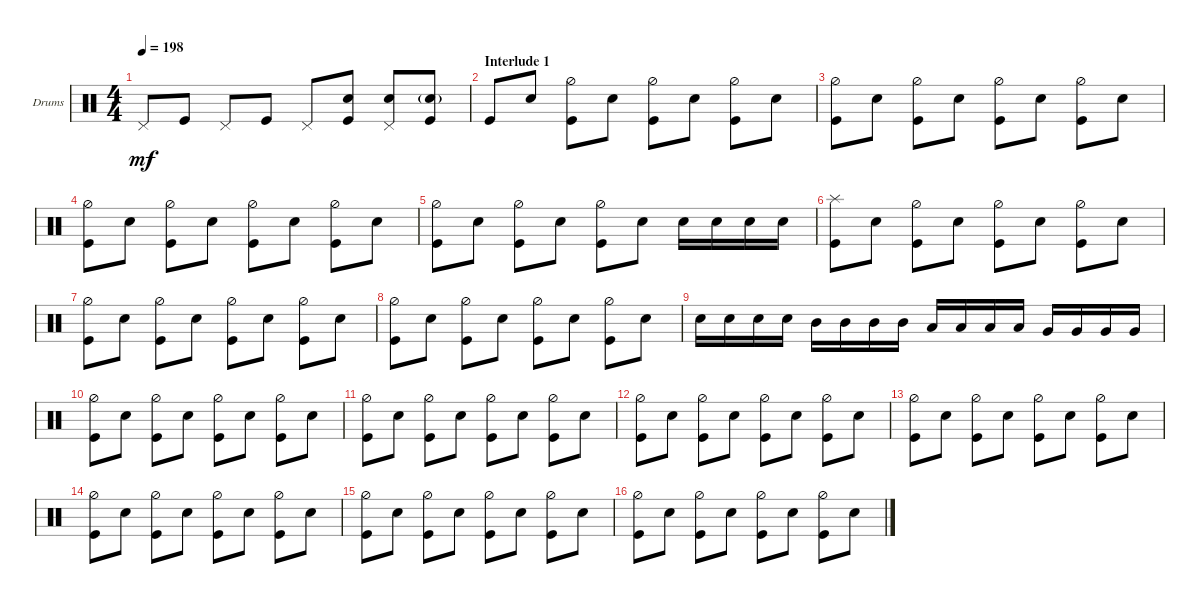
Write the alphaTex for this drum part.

\bracketExtendMode groupsimilarinstruments
\firstSystemTrackNameOrientation horizontal
\otherSystemsTrackNameOrientation horizontal
\track ("Drumkit" "Drums") {instrument percussion}
\staff {score}
\articulation defaults
\ts (4 4)
\tempo 198
\clef neutral
\ks c "Pedal Hi-Hat (hit)".8{dy mf} "Kick (hit)".8 "Pedal Hi-Hat (hit)".8 "Kick (hit)".8 "Pedal Hi-Hat (hit)".8
("Kick (hit)" "Snare (hit) 2").8 ("Pedal Hi-Hat (hit)" "Snare (hit) 2").8 ("Kick (hit)" "Snare (hit) 2"{g}).8 |
\section ("" "Interlude 1")
"Kick (hit)".8 "Snare (hit) 2".8 ("Kick (hit)" "Hi-Hat (half)").8 "Snare (hit) 2".8 ("Kick (hit)" "Hi-Hat (half)").8 "Snare (hit) 2".8 ("Kick (hit)" "Hi-Hat (half)").8 "Snare (hit) 2".8 |
("Kick (hit)" "Hi-Hat (half)").8 "Snare (hit) 2".8 ("Kick (hit)" "Hi-Hat (half)").8 "Snare (hit) 2".8 ("Kick (hit)" "Hi-Hat (half)").8 "Snare (hit) 2".8 ("Kick (hit)" "Hi-Hat (half)").8 "Snare (hit) 2".8 |
("Kick (hit)" "Hi-Hat (half)").8 "Snare (hit) 2".8 ("Kick (hit)" "Hi-Hat (half)").8 "Snare (hit) 2".8 ("Kick (hit)" "Hi-Hat (half)").8 "Snare (hit) 2".8 ("Kick (hit)" "Hi-Hat (half)").8 "Snare (hit) 2".8 |
("Kick (hit)" "Hi-Hat (half)").8 "Snare (hit) 2".8 ("Kick (hit)" "Hi-Hat (half)").8 "Snare (hit) 2".8 ("Hi-Hat (half)" "Kick (hit)").8 "Snare (hit) 2".8 "Snare (hit) 2".16 "Snare (hit) 2".16 "Snare (hit) 2".16 "Snare (hit) 2".16 |
("Kick (hit)" "Splash (hit)").8 "Snare (hit) 2".8 ("Kick (hit)" "Hi-Hat (half)").8 "Snare (hit) 2".8 ("Kick (hit)" "Hi-Hat (half)").8 "Snare (hit) 2".8 ("Kick (hit)" "Hi-Hat (half)").8 "Snare (hit) 2".8 |
("Kick (hit)" "Hi-Hat (half)").8 "Snare (hit) 2".8 ("Kick (hit)" "Hi-Hat (half)").8 "Snare (hit) 2".8 ("Kick (hit)" "Hi-Hat (half)").8 "Snare (hit) 2".8 ("Kick (hit)" "Hi-Hat (half)").8 "Snare (hit) 2".8 |
("Kick (hit)" "Hi-Hat (half)").8 "Snare (hit) 2".8 ("Kick (hit)" "Hi-Hat (half)").8 "Snare (hit) 2".8 ("Kick (hit)" "Hi-Hat (half)").8 "Snare (hit) 2".8 ("Kick (hit)" "Hi-Hat (half)").8 "Snare (hit) 2".8 |
"Snare (hit) 2".16 "Snare (hit) 2".16 "Snare (hit) 2".16 "Snare (hit) 2".16 "Mid Tom (hit)".16 "Mid Tom (hit)".16 "Mid Tom (hit)".16 "Mid Tom (hit)".16 "Low Tom (hit)".16 "Low Tom (hit)".16 "Low Tom (hit)".16 "Low Tom (hit)".16 "Very Low Tom (hit)".16 "Very Low Tom (hit)".16 "Very Low Tom (hit)".16 "Very Low Tom (hit)".16 |
("Kick (hit)" "Hi-Hat (half)").8 "Snare (hit) 2".8 ("Kick (hit)" "Hi-Hat (half)").8 "Snare (hit) 2".8 ("Kick (hit)" "Hi-Hat (half)").8 "Snare (hit) 2".8 ("Kick (hit)" "Hi-Hat (half)").8 "Snare (hit) 2".8 |
("Kick (hit)" "Hi-Hat (half)").8 "Snare (hit) 2".8 ("Kick (hit)" "Hi-Hat (half)").8 "Snare (hit) 2".8 ("Kick (hit)" "Hi-Hat (half)").8 "Snare (hit) 2".8 ("Kick (hit)" "Hi-Hat (half)").8 "Snare (hit) 2".8 |
("Kick (hit)" "Hi-Hat (half)").8 "Snare (hit) 2".8 ("Kick (hit)" "Hi-Hat (half)").8 "Snare (hit) 2".8 ("Kick (hit)" "Hi-Hat (half)").8 "Snare (hit) 2".8 ("Kick (hit)" "Hi-Hat (half)").8 "Snare (hit) 2".8 |
("Kick (hit)" "Hi-Hat (half)").8 "Snare (hit) 2".8 ("Kick (hit)" "Hi-Hat (half)").8 "Snare (hit) 2".8 ("Kick (hit)" "Hi-Hat (half)").8 "Snare (hit) 2".8 ("Kick (hit)" "Hi-Hat (half)").8 "Snare (hit) 2".8 |
("Kick (hit)" "Hi-Hat (half)").8 "Snare (hit) 2".8 ("Kick (hit)" "Hi-Hat (half)").8 "Snare (hit) 2".8 ("Kick (hit)" "Hi-Hat (half)").8 "Snare (hit) 2".8 ("Kick (hit)" "Hi-Hat (half)").8 "Snare (hit) 2".8 |
("Kick (hit)" "Hi-Hat (half)").8 "Snare (hit) 2".8 ("Kick (hit)" "Hi-Hat (half)").8 "Snare (hit) 2".8 ("Kick (hit)" "Hi-Hat (half)").8 "Snare (hit) 2".8 ("Kick (hit)" "Hi-Hat (half)").8 "Snare (hit) 2".8 |
("Kick (hit)" "Hi-Hat (half)").8 "Snare (hit) 2".8 ("Kick (hit)" "Hi-Hat (half)").8 "Snare (hit) 2".8 ("Kick (hit)" "Hi-Hat (half)").8 "Snare (hit) 2".8 ("Kick (hit)" "Hi-Hat (half)").8 "Snare (hit) 2".8
